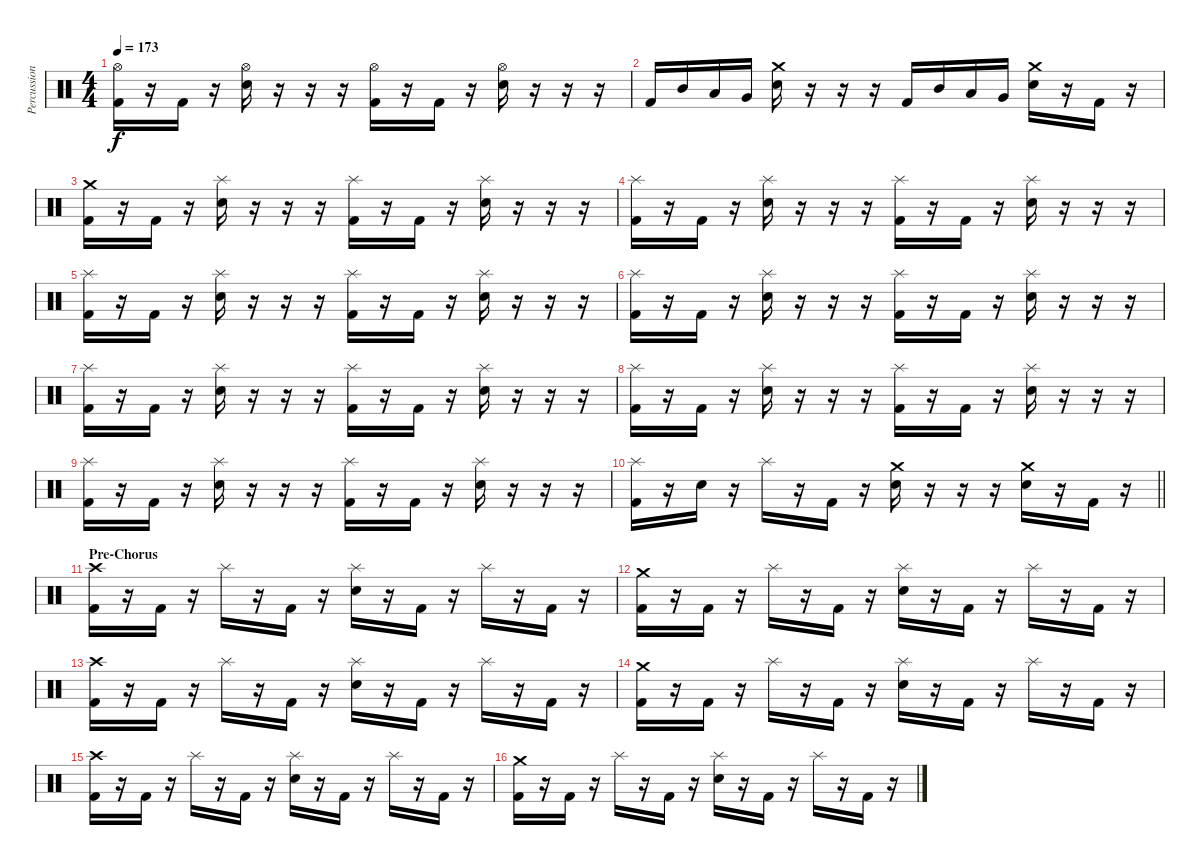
\track ("Percussion" "Percussion") {instrument percussion}
\staff {score}
\articulation defaults
\ts (4 4)
\tempo 173
\clef neutral
\ks c
("Hi-Hat (open)" "Kick (hit) 2").16{dy f} r.16 "Kick (hit) 2".16 r.16 ("Hi-Hat (open)" "Electric Snare (hit)").16 r.16 r.16 r.16 ("Hi-Hat (open)" "Kick (hit) 2").16 r.16 "Kick (hit) 2".16 r.16 ("Hi-Hat (open)" "Electric Snare (hit)").16 r.16 r.16 r.16 |
"Kick (hit) 2".16 "Mid Tom (hit)".16 "Low Tom (hit)".16 "Very Low Tom (hit)".16 ("Crash medium (hit)" "Electric Snare (hit)").16 r.16 r.16 r.16 "Kick (hit) 2".16 "Mid Tom (hit)".16 "Low Tom (hit)".16 "Very Low Tom (hit)".16 ("Crash medium (hit)" "Electric Snare (hit)").16 r.16 "Kick (hit) 2".16 r.16 |
("Crash medium (hit)" "Kick (hit) 2").16 r.16 "Kick (hit) 2".16 r.16 ("Splash (hit)" "Electric Snare (hit)").16 r.16 r.16 r.16 ("Splash (hit)" "Kick (hit) 2").16 r.16 "Kick (hit) 2".16 r.16 ("Splash (hit)" "Electric Snare (hit)").16 r.16 r.16 r.16 |
("Splash (hit)" "Kick (hit) 2").16 r.16 "Kick (hit) 2".16 r.16 ("Splash (hit)" "Electric Snare (hit)").16 r.16 r.16 r.16 ("Splash (hit)" "Kick (hit) 2").16 r.16 "Kick (hit) 2".16 r.16 ("Splash (hit)" "Electric Snare (hit)").16 r.16 r.16 r.16 |
("Splash (hit)" "Kick (hit) 2").16 r.16 "Kick (hit) 2".16 r.16 ("Splash (hit)" "Electric Snare (hit)").16 r.16 r.16 r.16 ("Splash (hit)" "Kick (hit) 2").16 r.16 "Kick (hit) 2".16 r.16 ("Splash (hit)" "Electric Snare (hit)").16 r.16 r.16 r.16 |
("Splash (hit)" "Kick (hit) 2").16 r.16 "Kick (hit) 2".16 r.16 ("Splash (hit)" "Electric Snare (hit)").16 r.16 r.16 r.16 ("Splash (hit)" "Kick (hit) 2").16 r.16 "Kick (hit) 2".16 r.16 ("Splash (hit)" "Electric Snare (hit)").16 r.16 r.16 r.16 |
("Splash (hit)" "Kick (hit) 2").16 r.16 "Kick (hit) 2".16 r.16 ("Splash (hit)" "Electric Snare (hit)").16 r.16 r.16 r.16 ("Splash (hit)" "Kick (hit) 2").16 r.16 "Kick (hit) 2".16 r.16 ("Splash (hit)" "Electric Snare (hit)").16 r.16 r.16 r.16 |
("Splash (hit)" "Kick (hit) 2").16 r.16 "Kick (hit) 2".16 r.16 ("Splash (hit)" "Electric Snare (hit)").16 r.16 r.16 r.16 ("Splash (hit)" "Kick (hit) 2").16 r.16 "Kick (hit) 2".16 r.16 ("Splash (hit)" "Electric Snare (hit)").16 r.16 r.16 r.16 |
("Splash (hit)" "Kick (hit) 2").16 r.16 "Kick (hit) 2".16 r.16 ("Splash (hit)" "Electric Snare (hit)").16 r.16 r.16 r.16 ("Splash (hit)" "Kick (hit) 2").16 r.16 "Kick (hit) 2".16 r.16 ("Splash (hit)" "Electric Snare (hit)").16 r.16 r.16 r.16 |
\barLineRight lightlight
("Splash (hit)" "Kick (hit) 2").16 r.16 "Electric Snare (hit)".16 r.16 "Splash (hit)".16 r.16 "Kick (hit) 2".16 r.16 ("Crash medium (hit)" "Electric Snare (hit)").16 r.16 r.16 r.16 ("Crash medium (hit)" "Electric Snare (hit)").16 r.16 "Kick (hit) 2".16 r.16 |
\section ("" "Pre-Chorus")
("Crash high (hit)" "Kick (hit) 2").16 r.16 "Kick (hit) 2".16 r.16 "Splash (hit)".16 r.16 "Kick (hit) 2".16 r.16 ("Splash (hit)" "Electric Snare (hit)").16 r.16 "Kick (hit) 2".16 r.16 "Splash (hit)".16 r.16 "Kick (hit) 2".16 r.16 |
("Crash medium (hit)" "Kick (hit) 2").16 r.16 "Kick (hit) 2".16 r.16 "Splash (hit)".16 r.16 "Kick (hit) 2".16 r.16 ("Splash (hit)" "Electric Snare (hit)").16 r.16 "Kick (hit) 2".16 r.16 "Splash (hit)".16 r.16 "Kick (hit) 2".16 r.16 |
("Crash high (hit)" "Kick (hit) 2").16 r.16 "Kick (hit) 2".16 r.16 "Splash (hit)".16 r.16 "Kick (hit) 2".16 r.16 ("Splash (hit)" "Electric Snare (hit)").16 r.16 "Kick (hit) 2".16 r.16 "Splash (hit)".16 r.16 "Kick (hit) 2".16 r.16 |
("Crash medium (hit)" "Kick (hit) 2").16 r.16 "Kick (hit) 2".16 r.16 "Splash (hit)".16 r.16 "Kick (hit) 2".16 r.16 ("Splash (hit)" "Electric Snare (hit)").16 r.16 "Kick (hit) 2".16 r.16 "Splash (hit)".16 r.16 "Kick (hit) 2".16 r.16 |
("Crash high (hit)" "Kick (hit) 2").16 r.16 "Kick (hit) 2".16 r.16 "Splash (hit)".16 r.16 "Kick (hit) 2".16 r.16 ("Splash (hit)" "Electric Snare (hit)").16 r.16 "Kick (hit) 2".16 r.16 "Splash (hit)".16 r.16 "Kick (hit) 2".16 r.16 |
("Crash medium (hit)" "Kick (hit) 2").16 r.16 "Kick (hit) 2".16 r.16 "Splash (hit)".16 r.16 "Kick (hit) 2".16 r.16 ("Splash (hit)" "Electric Snare (hit)").16 r.16 "Kick (hit) 2".16 r.16 "Splash (hit)".16 r.16 "Kick (hit) 2".16 r.16
